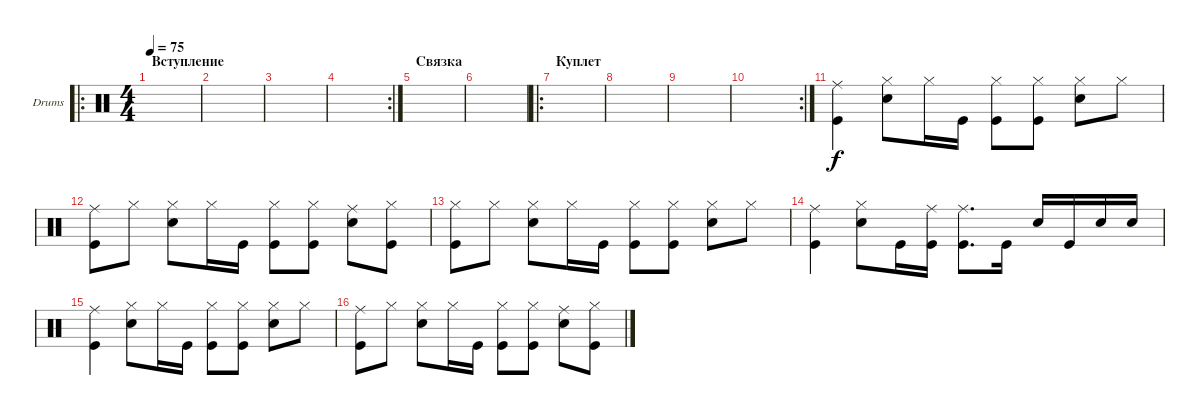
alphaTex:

\defaultSystemsLayout 4
\bracketExtendMode groupsimilarinstruments
\firstSystemTrackNameOrientation horizontal
\otherSystemsTrackNameOrientation horizontal
\track ("Барабаны" "Drums") {solo instrument percussion}
\staff {score}
\articulation defaults
\ro
\ts (4 4)
\section ("" "Вступление")
\tempo 75
\clef neutral
\scale
0.502222
\ks c
|
\scale
0.248889 |
\scale
0.248889 |
\rc 2
\scale
0.356322 |
\section ("" "Связка")
\scale
0.321839 |
\scale
0.321839 |
\ro
\section ("" "Куплет")
\scale
0.377778 |
\scale
0.311111 |
\scale
0.311111 |
\rc 2
\scale
0.333333 |
\scale
0.365591 ("Kick (hit)" "Ride (middle)").4 ("Snare (hit) 2" "Hi-Hat (closed)").8 "Hi-Hat (closed)".16 "Kick (hit)".16 ("Kick (hit)" "Hi-Hat (closed)").8 ("Kick (hit)" "Hi-Hat (closed)").8 ("Snare (hit) 2" "Hi-Hat (closed)").8 "Hi-Hat (closed)".8 |
\scale
0.301075 ("Kick (hit)" "Ride (middle)").8 "Hi-Hat (closed)".8 ("Snare (hit) 2" "Hi-Hat (closed)").8 "Hi-Hat (closed)".16 "Kick (hit)".16 ("Kick (hit)" "Hi-Hat (closed)").8 ("Kick (hit)" "Hi-Hat (closed)").8 ("Snare (hit) 2" "Ride (middle)").8 ("Kick (hit)" "Hi-Hat (closed)").8 |
\scale
0.321839 ("Kick (hit)" "Hi-Hat (closed)").8 "Hi-Hat (closed)".8 ("Snare (hit) 2" "Hi-Hat (closed)").8 "Hi-Hat (closed)".16 "Kick (hit)".16 ("Kick (hit)" "Hi-Hat (closed)").8 ("Kick (hit)" "Hi-Hat (closed)").8 ("Snare (hit) 2" "Hi-Hat (closed)").8 "Hi-Hat (closed)".8 |
\scale
0.356322 ("Kick (hit)" "Ride (middle)").4 ("Snare (hit) 2" "Hi-Hat (closed)").8 "Kick (hit)".16 ("Kick (hit)" "Ride (middle)").16 ("Kick (hit)" "Ride (middle)").8{d} "Kick (hit)".16 "Snare (hit) 2".16 "Kick (hit)".16 "Snare (hit) 2".16 "Snare (hit) 2".16 |
("Kick (hit)" "Ride (middle)").4 ("Snare (hit) 2" "Hi-Hat (closed)").8 "Hi-Hat (closed)".16 "Kick (hit)".16 ("Kick (hit)" "Hi-Hat (closed)").8 ("Kick (hit)" "Hi-Hat (closed)").8 ("Snare (hit) 2" "Hi-Hat (closed)").8 "Hi-Hat (closed)".8 |
("Kick (hit)" "Ride (middle)").8 "Hi-Hat (closed)".8 ("Snare (hit) 2" "Hi-Hat (closed)").8 "Hi-Hat (closed)".16 "Kick (hit)".16 ("Kick (hit)" "Hi-Hat (closed)").8 ("Kick (hit)" "Hi-Hat (closed)").8 ("Snare (hit) 2" "Ride (middle)").8 ("Kick (hit)" "Hi-Hat (closed)").8
